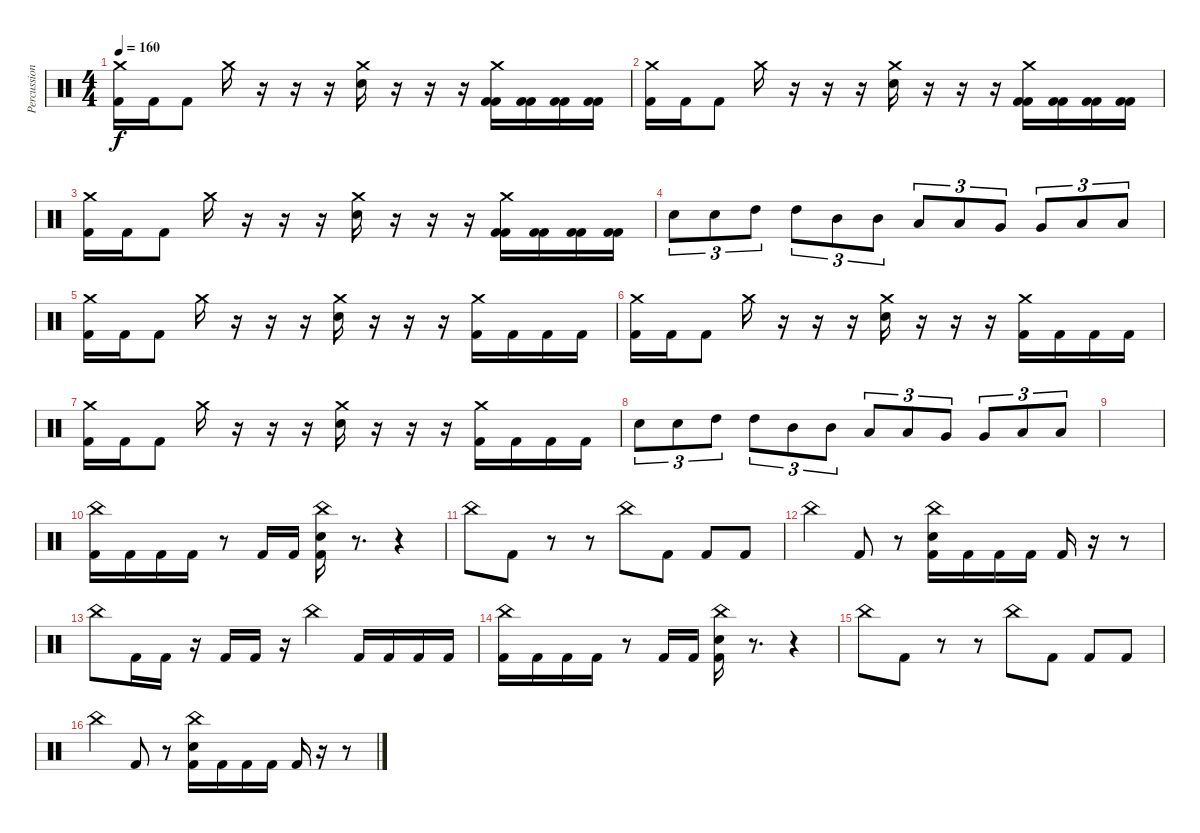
\track ("Percussion" "Percussion") {instrument percussion}
\staff {score}
\articulation defaults
\ts (4 4)
\tempo 160
\clef neutral
\ks c
("Crash medium (hit)" "Kick (hit) 2").16{dy f} "Kick (hit) 2".16 "Kick (hit) 2".8 "Crash medium (hit)".16 r.16 r.16 r.16 ("Crash medium (hit)" "Snare (hit) 2").16 r.16 r.16 r.16 ("Crash medium (hit)" "Kick (hit) 2" "Kick (hit) 2").16 ("Kick (hit) 2" "Kick (hit) 2").16 ("Kick (hit) 2" "Kick (hit) 2").16 ("Kick (hit) 2" "Kick (hit) 2").16 |
("Crash medium (hit)" "Kick (hit) 2").16 "Kick (hit) 2".16 "Kick (hit) 2".8 "Crash medium (hit)".16 r.16 r.16 r.16 ("Crash medium (hit)" "Snare (hit) 2").16 r.16 r.16 r.16 ("Crash medium (hit)" "Kick (hit) 2" "Kick (hit) 2").16 ("Kick (hit) 2" "Kick (hit) 2").16 ("Kick (hit) 2" "Kick (hit) 2").16 ("Kick (hit) 2" "Kick (hit) 2").16 |
("Crash medium (hit)" "Kick (hit) 2").16 "Kick (hit) 2".16 "Kick (hit) 2".8 "Crash medium (hit)".16 r.16 r.16 r.16 ("Crash medium (hit)" "Snare (hit) 2").16 r.16 r.16 r.16 ("Crash medium (hit)" "Kick (hit) 2" "Kick (hit) 2").16 ("Kick (hit) 2" "Kick (hit) 2").16 ("Kick (hit) 2" "Kick (hit) 2").16 ("Kick (hit) 2" "Kick (hit) 2").16 |
"Snare (hit) 2".8{tu (3 2)} "Snare (hit) 2".8{tu (3 2)} "High Tom (hit)".8{tu (3 2)} "High Tom (hit)".8{tu (3 2)} "Mid Tom (hit)".8{tu (3 2)} "Mid Tom (hit)".8{tu (3 2)} "Low Tom (hit)".8{tu (3 2)} "Low Tom (hit)".8{tu (3 2)} "Very Low Tom (hit)".8{tu (3 2)} "Very Low Tom (hit)".8{tu (3 2)} "Low Floor Tom (hit)".8{tu (3 2)} "Low Floor Tom (hit)".8{tu (3 2)} |
("Crash medium (hit)" "Kick (hit) 2").16 "Kick (hit) 2".16 "Kick (hit) 2".8 "Crash medium (hit)".16 r.16 r.16 r.16 ("Crash medium (hit)" "Snare (hit) 2").16 r.16 r.16 r.16 ("Crash medium (hit)" "Kick (hit) 2").16 "Kick (hit) 2".16 "Kick (hit) 2".16 "Kick (hit) 2".16 |
("Crash medium (hit)" "Kick (hit) 2").16 "Kick (hit) 2".16 "Kick (hit) 2".8 "Crash medium (hit)".16 r.16 r.16 r.16 ("Crash medium (hit)" "Snare (hit) 2").16 r.16 r.16 r.16 ("Crash medium (hit)" "Kick (hit) 2").16 "Kick (hit) 2".16 "Kick (hit) 2".16 "Kick (hit) 2".16 |
("Crash medium (hit)" "Kick (hit) 2").16 "Kick (hit) 2".16 "Kick (hit) 2".8 "Crash medium (hit)".16 r.16 r.16 r.16 ("Crash medium (hit)" "Snare (hit) 2").16 r.16 r.16 r.16 ("Crash medium (hit)" "Kick (hit) 2").16 "Kick (hit) 2".16 "Kick (hit) 2".16 "Kick (hit) 2".16 |
"Snare (hit) 2".8{tu (3 2)} "Snare (hit) 2".8{tu (3 2)} "High Tom (hit)".8{tu (3 2)} "High Tom (hit)".8{tu (3 2)} "Mid Tom (hit)".8{tu (3 2)} "Mid Tom (hit)".8{tu (3 2)} "Low Tom (hit)".8{tu (3 2)} "Low Tom (hit)".8{tu (3 2)} "Very Low Tom (hit)".8{tu (3 2)} "Very Low Tom (hit)".8{tu (3 2)} "Low Floor Tom (hit)".8{tu (3 2)} "Low Floor Tom (hit)".8{tu (3 2)} |
|
("China (hit)" "Kick (hit) 2").16 "Kick (hit) 2".16 "Kick (hit) 2".16 "Kick (hit) 2".16 r.8 "Kick (hit) 2".16 "Kick (hit) 2".16 ("China (hit)" "Snare (hit) 2" "Kick (hit) 2").16 r.8{d} r.4 |
"China (hit)".8 "Kick (hit) 2".8 r.8 r.8 "China (hit)".8 "Kick (hit) 2".8 "Kick (hit) 2".8 "Kick (hit) 2".8 |
"China (hit)".4 "Kick (hit) 2".8 r.8 ("China (hit)" "Snare (hit) 2" "Kick (hit) 2").16 "Kick (hit) 2".16 "Kick (hit) 2".16 "Kick (hit) 2".16 "Kick (hit) 2".16 r.16 r.8 |
"China (hit)".8 "Kick (hit) 2".16 "Kick (hit) 2".16 r.16 "Kick (hit) 2".16 "Kick (hit) 2".16 r.16 "China (hit)".4 "Kick (hit) 2".16 "Kick (hit) 2".16 "Kick (hit) 2".16 "Kick (hit) 2".16 |
("China (hit)" "Kick (hit) 2").16 "Kick (hit) 2".16 "Kick (hit) 2".16 "Kick (hit) 2".16 r.8 "Kick (hit) 2".16 "Kick (hit) 2".16 ("China (hit)" "Snare (hit) 2" "Kick (hit) 2").16 r.8{d} r.4 |
"China (hit)".8 "Kick (hit) 2".8 r.8 r.8 "China (hit)".8 "Kick (hit) 2".8 "Kick (hit) 2".8 "Kick (hit) 2".8 |
"China (hit)".4 "Kick (hit) 2".8 r.8 ("China (hit)" "Snare (hit) 2" "Kick (hit) 2").16 "Kick (hit) 2".16 "Kick (hit) 2".16 "Kick (hit) 2".16 "Kick (hit) 2".16 r.16 r.8
